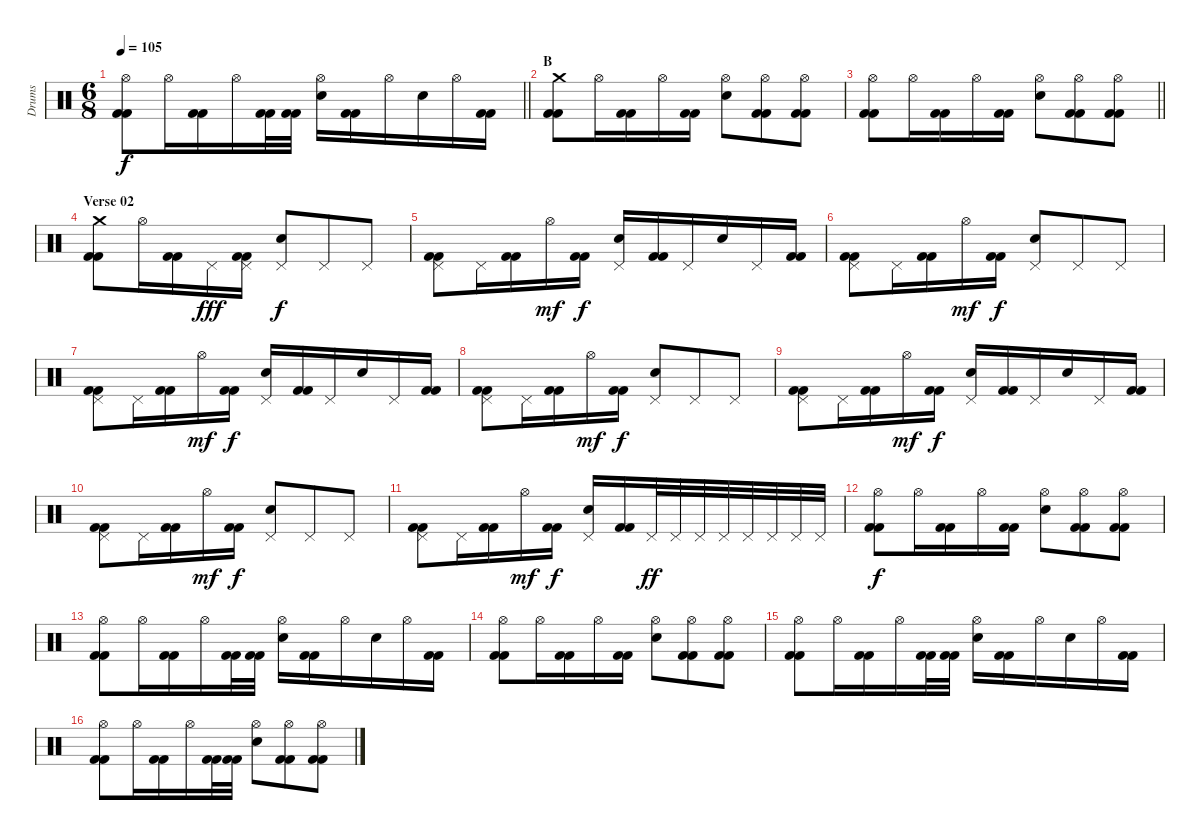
\track ("Drums" "Drums") {instrument percussion}
\staff {score}
\articulation defaults
\ts (6 8)
\tempo 105
\clef neutral
\barLineRight lightlight
\ks c
("Hi-Hat (open)" "Kick (hit) 2" "Kick (hit) 2").8{dy f} "Hi-Hat (open)".16 ("Kick (hit) 2" "Kick (hit) 2").16 "Hi-Hat (open)".16 ("Kick (hit) 2" "Kick (hit) 2").32 ("Kick (hit) 2" "Kick (hit) 2").32 ("Hi-Hat (open)" "Electric Snare (hit)").16 ("Kick (hit) 2" "Kick (hit) 2").16 "Hi-Hat (open)".16 "Electric Snare (hit)".16 "Hi-Hat (open)".16 ("Kick (hit) 2" "Kick (hit) 2").16 |
\section ("" "B")
("Crash medium (hit)" "Kick (hit) 2" "Kick (hit) 2").8 "Hi-Hat (open)".16 ("Kick (hit) 2" "Kick (hit) 2").16 "Hi-Hat (open)".16 ("Kick (hit) 2" "Kick (hit) 2").16 ("Hi-Hat (open)" "Electric Snare (hit)").8 ("Hi-Hat (open)" "Kick (hit) 2" "Kick (hit) 2").8 ("Hi-Hat (open)" "Kick (hit) 2" "Kick (hit) 2").8 |
\barLineRight lightlight
("Hi-Hat (open)" "Kick (hit) 2" "Kick (hit) 2").8 "Hi-Hat (open)".16 ("Kick (hit) 2" "Kick (hit) 2").16 "Hi-Hat (open)".16 ("Kick (hit) 2" "Kick (hit) 2").16 ("Hi-Hat (open)" "Electric Snare (hit)").8 ("Hi-Hat (open)" "Kick (hit) 2" "Kick (hit) 2").8 ("Hi-Hat (open)" "Kick (hit) 2" "Kick (hit) 2").8 |
\section ("" "Verse 02")
("Crash medium (hit)" "Kick (hit) 2" "Kick (hit) 2").8 "Hi-Hat (open)".16 ("Kick (hit) 2" "Kick (hit) 2").16 "Pedal Hi-Hat (hit)".16{dy fff} ("Pedal Hi-Hat (hit)" "Kick (hit) 2" "Kick (hit) 2").16 ("Pedal Hi-Hat (hit)" "Electric Snare (hit)").8{dy f} "Pedal Hi-Hat (hit)".8 "Pedal Hi-Hat (hit)".8 |
("Pedal Hi-Hat (hit)" "Kick (hit) 2" "Kick (hit) 2").8 "Pedal Hi-Hat (hit)".16 ("Kick (hit) 2" "Kick (hit) 2").16 "Hi-Hat (open)".16{dy mf} ("Kick (hit) 2" "Kick (hit) 2").16{dy f} ("Pedal Hi-Hat (hit)" "Electric Snare (hit)").16 ("Kick (hit) 2" "Kick (hit) 2").16 "Pedal Hi-Hat (hit)".16 "Electric Snare (hit)".16 "Pedal Hi-Hat (hit)".16 ("Kick (hit) 2" "Kick (hit) 2").16 |
("Pedal Hi-Hat (hit)" "Kick (hit) 2" "Kick (hit) 2").8 "Pedal Hi-Hat (hit)".16 ("Kick (hit) 2" "Kick (hit) 2").16 "Hi-Hat (open)".16{dy mf} ("Kick (hit) 2" "Kick (hit) 2").16{dy f} ("Pedal Hi-Hat (hit)" "Electric Snare (hit)").8 "Pedal Hi-Hat (hit)".8 "Pedal Hi-Hat (hit)".8 |
("Pedal Hi-Hat (hit)" "Kick (hit) 2" "Kick (hit) 2").8 "Pedal Hi-Hat (hit)".16 ("Kick (hit) 2" "Kick (hit) 2").16 "Hi-Hat (open)".16{dy mf} ("Kick (hit) 2" "Kick (hit) 2").16{dy f} ("Pedal Hi-Hat (hit)" "Electric Snare (hit)").16 ("Kick (hit) 2" "Kick (hit) 2").16 "Pedal Hi-Hat (hit)".16 "Electric Snare (hit)".16 "Pedal Hi-Hat (hit)".16 ("Kick (hit) 2" "Kick (hit) 2").16 |
("Pedal Hi-Hat (hit)" "Kick (hit) 2" "Kick (hit) 2").8 "Pedal Hi-Hat (hit)".16 ("Kick (hit) 2" "Kick (hit) 2").16 "Hi-Hat (open)".16{dy mf} ("Kick (hit) 2" "Kick (hit) 2").16{dy f} ("Pedal Hi-Hat (hit)" "Electric Snare (hit)").8 "Pedal Hi-Hat (hit)".8 "Pedal Hi-Hat (hit)".8 |
("Pedal Hi-Hat (hit)" "Kick (hit) 2" "Kick (hit) 2").8 "Pedal Hi-Hat (hit)".16 ("Kick (hit) 2" "Kick (hit) 2").16 "Hi-Hat (open)".16{dy mf} ("Kick (hit) 2" "Kick (hit) 2").16{dy f} ("Pedal Hi-Hat (hit)" "Electric Snare (hit)").16 ("Kick (hit) 2" "Kick (hit) 2").16 "Pedal Hi-Hat (hit)".16 "Electric Snare (hit)".16 "Pedal Hi-Hat (hit)".16 ("Kick (hit) 2" "Kick (hit) 2").16 |
("Pedal Hi-Hat (hit)" "Kick (hit) 2" "Kick (hit) 2").8 "Pedal Hi-Hat (hit)".16 ("Kick (hit) 2" "Kick (hit) 2").16 "Hi-Hat (open)".16{dy mf} ("Kick (hit) 2" "Kick (hit) 2").16{dy f} ("Pedal Hi-Hat (hit)" "Electric Snare (hit)").8 "Pedal Hi-Hat (hit)".8 "Pedal Hi-Hat (hit)".8 |
("Pedal Hi-Hat (hit)" "Kick (hit) 2" "Kick (hit) 2").8 "Pedal Hi-Hat (hit)".16 ("Kick (hit) 2" "Kick (hit) 2").16 "Hi-Hat (open)".16{dy mf} ("Kick (hit) 2" "Kick (hit) 2").16{dy f} ("Pedal Hi-Hat (hit)" "Electric Snare (hit)").16 ("Kick (hit) 2" "Kick (hit) 2").16 "Pedal Hi-Hat (hit)".32{dy ff} "Pedal Hi-Hat (hit)".32 "Pedal Hi-Hat (hit)".32 "Pedal Hi-Hat (hit)".32 "Pedal Hi-Hat (hit)".32 "Pedal Hi-Hat (hit)".32 "Pedal Hi-Hat (hit)".32 "Pedal Hi-Hat (hit)".32 |
("Hi-Hat (open)" "Kick (hit) 2" "Kick (hit) 2").8{dy f} "Hi-Hat (open)".16 ("Kick (hit) 2" "Kick (hit) 2").16 "Hi-Hat (open)".16 ("Kick (hit) 2" "Kick (hit) 2").16 ("Hi-Hat (open)" "Electric Snare (hit)").8 ("Hi-Hat (open)" "Kick (hit) 2" "Kick (hit) 2").8 ("Hi-Hat (open)" "Kick (hit) 2" "Kick (hit) 2").8 |
("Hi-Hat (open)" "Kick (hit) 2" "Kick (hit) 2").8 "Hi-Hat (open)".16 ("Kick (hit) 2" "Kick (hit) 2").16 "Hi-Hat (open)".16 ("Kick (hit) 2" "Kick (hit) 2").32 ("Kick (hit) 2" "Kick (hit) 2").32 ("Hi-Hat (open)" "Electric Snare (hit)").16 ("Kick (hit) 2" "Kick (hit) 2").16 "Hi-Hat (open)".16 "Electric Snare (hit)".16 "Hi-Hat (open)".16 ("Kick (hit) 2" "Kick (hit) 2").16 |
("Hi-Hat (open)" "Kick (hit) 2" "Kick (hit) 2").8 "Hi-Hat (open)".16 ("Kick (hit) 2" "Kick (hit) 2").16 "Hi-Hat (open)".16 ("Kick (hit) 2" "Kick (hit) 2").16 ("Hi-Hat (open)" "Electric Snare (hit)").8 ("Hi-Hat (open)" "Kick (hit) 2" "Kick (hit) 2").8 ("Hi-Hat (open)" "Kick (hit) 2" "Kick (hit) 2").8 |
("Hi-Hat (open)" "Kick (hit) 2" "Kick (hit) 2").8 "Hi-Hat (open)".16 ("Kick (hit) 2" "Kick (hit) 2").16 "Hi-Hat (open)".16 ("Kick (hit) 2" "Kick (hit) 2").32 ("Kick (hit) 2" "Kick (hit) 2").32 ("Hi-Hat (open)" "Electric Snare (hit)").16 ("Kick (hit) 2" "Kick (hit) 2").16 "Hi-Hat (open)".16 "Electric Snare (hit)".16 "Hi-Hat (open)".16 ("Kick (hit) 2" "Kick (hit) 2").16 |
("Hi-Hat (open)" "Kick (hit) 2" "Kick (hit) 2").8 "Hi-Hat (open)".16 ("Kick (hit) 2" "Kick (hit) 2").16 "Hi-Hat (open)".16 ("Kick (hit) 2" "Kick (hit) 2").32 ("Kick (hit) 2" "Kick (hit) 2").32 ("Hi-Hat (open)" "Electric Snare (hit)").8 ("Hi-Hat (open)" "Kick (hit) 2" "Kick (hit) 2").8 ("Hi-Hat (open)" "Kick (hit) 2" "Kick (hit) 2").8
